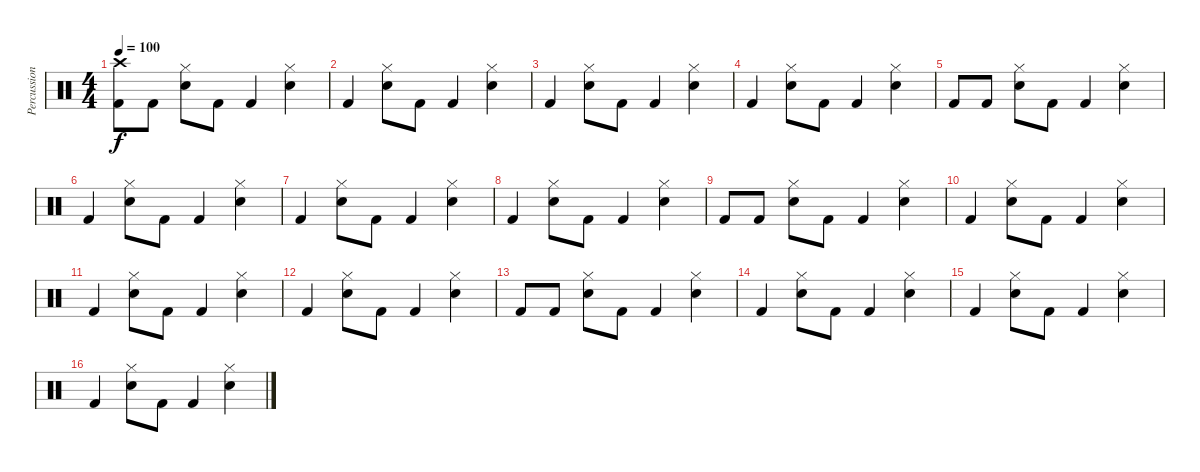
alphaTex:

\track ("Percussion" "Percussion") {instrument percussion}
\staff {score}
\articulation defaults
\ts (4 4)
\tempo 100
\clef neutral
\ks c
("Crash high (hit)" "Kick (hit) 2").8{dy f} "Kick (hit) 2".8 ("Snare (hit) 2" "Hi-Hat (closed)").8 "Kick (hit) 2".8 "Kick (hit) 2".4 ("Snare (hit) 2" "Hi-Hat (closed)").4 |
"Kick (hit) 2".4 ("Snare (hit) 2" "Hi-Hat (closed)").8 "Kick (hit) 2".8 "Kick (hit) 2".4 ("Snare (hit) 2" "Hi-Hat (closed)").4 |
"Kick (hit) 2".4 ("Snare (hit) 2" "Hi-Hat (closed)").8 "Kick (hit) 2".8 "Kick (hit) 2".4 ("Snare (hit) 2" "Hi-Hat (closed)").4 |
"Kick (hit) 2".4 ("Snare (hit) 2" "Hi-Hat (closed)").8 "Kick (hit) 2".8 "Kick (hit) 2".4 ("Snare (hit) 2" "Hi-Hat (closed)").4 |
"Kick (hit) 2".8 "Kick (hit) 2".8 ("Snare (hit) 2" "Hi-Hat (closed)").8 "Kick (hit) 2".8 "Kick (hit) 2".4 ("Snare (hit) 2" "Hi-Hat (closed)").4 |
"Kick (hit) 2".4 ("Snare (hit) 2" "Hi-Hat (closed)").8 "Kick (hit) 2".8 "Kick (hit) 2".4 ("Snare (hit) 2" "Hi-Hat (closed)").4 |
"Kick (hit) 2".4 ("Snare (hit) 2" "Hi-Hat (closed)").8 "Kick (hit) 2".8 "Kick (hit) 2".4 ("Snare (hit) 2" "Hi-Hat (closed)").4 |
"Kick (hit) 2".4 ("Snare (hit) 2" "Hi-Hat (closed)").8 "Kick (hit) 2".8 "Kick (hit) 2".4 ("Snare (hit) 2" "Hi-Hat (closed)").4 |
"Kick (hit) 2".8 "Kick (hit) 2".8 ("Snare (hit) 2" "Hi-Hat (closed)").8 "Kick (hit) 2".8 "Kick (hit) 2".4 ("Snare (hit) 2" "Hi-Hat (closed)").4 |
"Kick (hit) 2".4 ("Snare (hit) 2" "Hi-Hat (closed)").8 "Kick (hit) 2".8 "Kick (hit) 2".4 ("Snare (hit) 2" "Hi-Hat (closed)").4 |
"Kick (hit) 2".4 ("Snare (hit) 2" "Hi-Hat (closed)").8 "Kick (hit) 2".8 "Kick (hit) 2".4 ("Snare (hit) 2" "Hi-Hat (closed)").4 |
"Kick (hit) 2".4 ("Snare (hit) 2" "Hi-Hat (closed)").8 "Kick (hit) 2".8 "Kick (hit) 2".4 ("Snare (hit) 2" "Hi-Hat (closed)").4 |
"Kick (hit) 2".8 "Kick (hit) 2".8 ("Snare (hit) 2" "Hi-Hat (closed)").8 "Kick (hit) 2".8 "Kick (hit) 2".4 ("Snare (hit) 2" "Hi-Hat (closed)").4 |
"Kick (hit) 2".4 ("Snare (hit) 2" "Hi-Hat (closed)").8 "Kick (hit) 2".8 "Kick (hit) 2".4 ("Snare (hit) 2" "Hi-Hat (closed)").4 |
"Kick (hit) 2".4 ("Snare (hit) 2" "Hi-Hat (closed)").8 "Kick (hit) 2".8 "Kick (hit) 2".4 ("Snare (hit) 2" "Hi-Hat (closed)").4 |
"Kick (hit) 2".4 ("Snare (hit) 2" "Hi-Hat (closed)").8 "Kick (hit) 2".8 "Kick (hit) 2".4 ("Snare (hit) 2" "Hi-Hat (closed)").4
